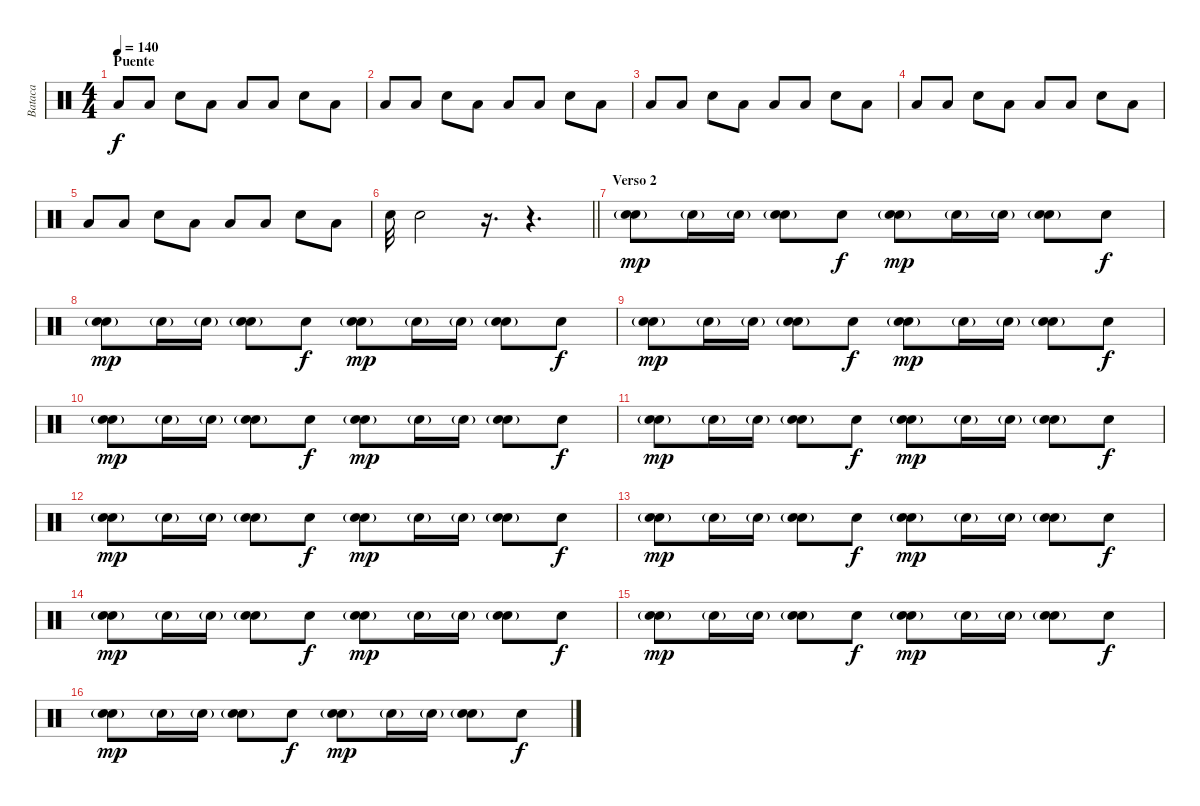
\track ("Bataca" "Bataca") {instrument percussion}
\staff {score}
\articulation defaults
\ts (4 4)
\section ("" "Puente")
\tempo 140
\clef neutral
\ks c "Low Floor Tom (hit)".8{dy f} "Low Floor Tom (hit)".8 "Electric Snare (hit)".8 "Low Floor Tom (hit)".8 "Low Floor Tom (hit)".8 "Low Floor Tom (hit)".8 "Electric Snare (hit)".8 "Low Floor Tom (hit)".8
|
"Low Floor Tom (hit)".8 "Low Floor Tom (hit)".8 "Electric Snare (hit)".8 "Low Floor Tom (hit)".8 "Low Floor Tom (hit)".8 "Low Floor Tom (hit)".8 "Electric Snare (hit)".8 "Low Floor Tom (hit)".8 |
"Low Floor Tom (hit)".8 "Low Floor Tom (hit)".8 "Electric Snare (hit)".8 "Low Floor Tom (hit)".8 "Low Floor Tom (hit)".8 "Low Floor Tom (hit)".8 "Electric Snare (hit)".8 "Low Floor Tom (hit)".8 |
"Low Floor Tom (hit)".8 "Low Floor Tom (hit)".8 "Electric Snare (hit)".8 "Low Floor Tom (hit)".8 "Low Floor Tom (hit)".8 "Low Floor Tom (hit)".8 "Electric Snare (hit)".8 "Low Floor Tom (hit)".8 |
"Low Floor Tom (hit)".8 "Low Floor Tom (hit)".8 "Electric Snare (hit)".8 "Low Floor Tom (hit)".8 "Low Floor Tom (hit)".8 "Low Floor Tom (hit)".8 "Electric Snare (hit)".8 "Low Floor Tom (hit)".8 |
\barLineRight lightlight "Electric Snare (hit)".32 "Electric Snare (hit)".2
r.16{d} r.4{d} |
\section ("" "Verso 2")
("Snare (hit) 2" "Electric Snare (hit)"{g}).8{dy mp} "Electric Snare (hit)"{g}.16 "Electric Snare (hit)"{g}.16 ("Snare (hit) 2" "Electric Snare (hit)"{g}).8 "Electric Snare (hit)".8{dy f} ("Snare (hit) 2" "Electric Snare (hit)"{g}).8{dy mp} "Electric Snare (hit)"{g}.16 "Electric Snare (hit)"{g}.16 ("Snare (hit) 2" "Electric Snare (hit)"{g}).8 "Electric Snare (hit)".8{dy f} |
("Snare (hit) 2" "Electric Snare (hit)"{g}).8{dy mp} "Electric Snare (hit)"{g}.16 "Electric Snare (hit)"{g}.16 ("Snare (hit) 2" "Electric Snare (hit)"{g}).8 "Electric Snare (hit)".8{dy f} ("Snare (hit) 2" "Electric Snare (hit)"{g}).8{dy mp} "Electric Snare (hit)"{g}.16 "Electric Snare (hit)"{g}.16 ("Snare (hit) 2" "Electric Snare (hit)"{g}).8 "Electric Snare (hit)".8{dy f} |
("Snare (hit) 2" "Electric Snare (hit)"{g}).8{dy mp} "Electric Snare (hit)"{g}.16 "Electric Snare (hit)"{g}.16 ("Snare (hit) 2" "Electric Snare (hit)"{g}).8 "Electric Snare (hit)".8{dy f} ("Snare (hit) 2" "Electric Snare (hit)"{g}).8{dy mp} "Electric Snare (hit)"{g}.16 "Electric Snare (hit)"{g}.16 ("Snare (hit) 2" "Electric Snare (hit)"{g}).8 "Electric Snare (hit)".8{dy f} |
("Snare (hit) 2" "Electric Snare (hit)"{g}).8{dy mp} "Electric Snare (hit)"{g}.16 "Electric Snare (hit)"{g}.16 ("Snare (hit) 2" "Electric Snare (hit)"{g}).8 "Electric Snare (hit)".8{dy f} ("Snare (hit) 2" "Electric Snare (hit)"{g}).8{dy mp} "Electric Snare (hit)"{g}.16 "Electric Snare (hit)"{g}.16 ("Snare (hit) 2" "Electric Snare (hit)"{g}).8 "Electric Snare (hit)".8{dy f} |
("Snare (hit) 2" "Electric Snare (hit)"{g}).8{dy mp} "Electric Snare (hit)"{g}.16 "Electric Snare (hit)"{g}.16 ("Snare (hit) 2" "Electric Snare (hit)"{g}).8 "Electric Snare (hit)".8{dy f} ("Snare (hit) 2" "Electric Snare (hit)"{g}).8{dy mp} "Electric Snare (hit)"{g}.16 "Electric Snare (hit)"{g}.16 ("Snare (hit) 2" "Electric Snare (hit)"{g}).8 "Electric Snare (hit)".8{dy f} |
("Snare (hit) 2" "Electric Snare (hit)"{g}).8{dy mp} "Electric Snare (hit)"{g}.16 "Electric Snare (hit)"{g}.16 ("Snare (hit) 2" "Electric Snare (hit)"{g}).8 "Electric Snare (hit)".8{dy f} ("Snare (hit) 2" "Electric Snare (hit)"{g}).8{dy mp} "Electric Snare (hit)"{g}.16 "Electric Snare (hit)"{g}.16 ("Snare (hit) 2" "Electric Snare (hit)"{g}).8 "Electric Snare (hit)".8{dy f} |
("Snare (hit) 2" "Electric Snare (hit)"{g}).8{dy mp} "Electric Snare (hit)"{g}.16 "Electric Snare (hit)"{g}.16 ("Snare (hit) 2" "Electric Snare (hit)"{g}).8 "Electric Snare (hit)".8{dy f} ("Snare (hit) 2" "Electric Snare (hit)"{g}).8{dy mp} "Electric Snare (hit)"{g}.16 "Electric Snare (hit)"{g}.16 ("Snare (hit) 2" "Electric Snare (hit)"{g}).8 "Electric Snare (hit)".8{dy f} |
("Snare (hit) 2" "Electric Snare (hit)"{g}).8{dy mp} "Electric Snare (hit)"{g}.16 "Electric Snare (hit)"{g}.16 ("Snare (hit) 2" "Electric Snare (hit)"{g}).8 "Electric Snare (hit)".8{dy f} ("Snare (hit) 2" "Electric Snare (hit)"{g}).8{dy mp} "Electric Snare (hit)"{g}.16 "Electric Snare (hit)"{g}.16 ("Snare (hit) 2" "Electric Snare (hit)"{g}).8 "Electric Snare (hit)".8{dy f} |
("Snare (hit) 2" "Electric Snare (hit)"{g}).8{dy mp} "Electric Snare (hit)"{g}.16 "Electric Snare (hit)"{g}.16 ("Snare (hit) 2" "Electric Snare (hit)"{g}).8 "Electric Snare (hit)".8{dy f} ("Snare (hit) 2" "Electric Snare (hit)"{g}).8{dy mp} "Electric Snare (hit)"{g}.16 "Electric Snare (hit)"{g}.16 ("Snare (hit) 2" "Electric Snare (hit)"{g}).8 "Electric Snare (hit)".8{dy f} |
("Snare (hit) 2" "Electric Snare (hit)"{g}).8{dy mp} "Electric Snare (hit)"{g}.16 "Electric Snare (hit)"{g}.16 ("Snare (hit) 2" "Electric Snare (hit)"{g}).8 "Electric Snare (hit)".8{dy f} ("Snare (hit) 2" "Electric Snare (hit)"{g}).8{dy mp} "Electric Snare (hit)"{g}.16 "Electric Snare (hit)"{g}.16 ("Snare (hit) 2" "Electric Snare (hit)"{g}).8 "Electric Snare (hit)".8{dy f}
